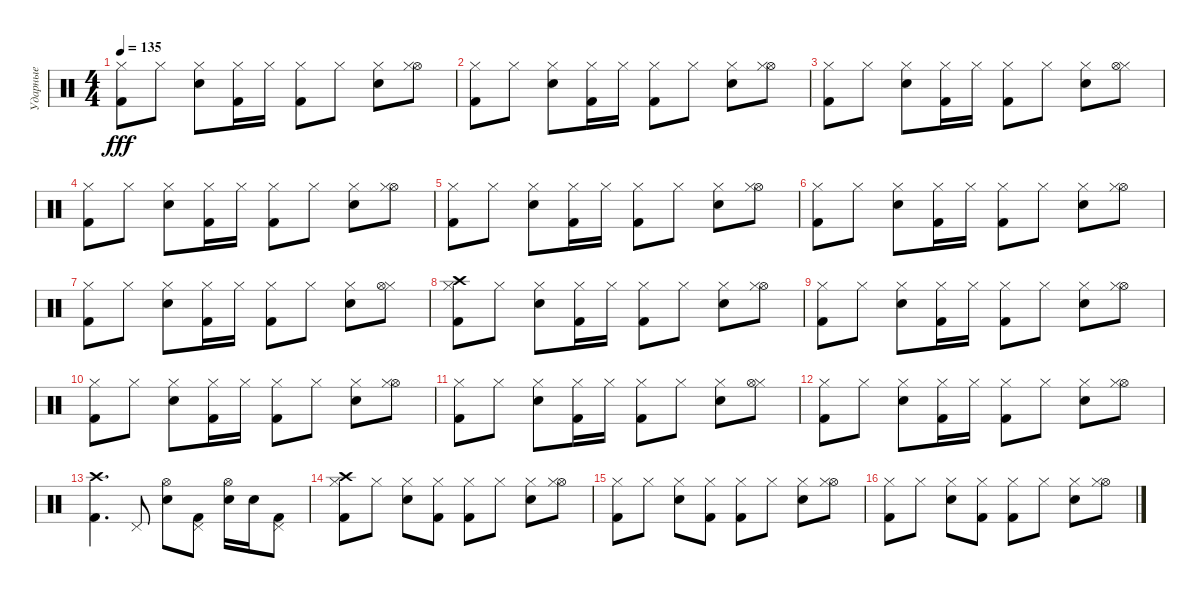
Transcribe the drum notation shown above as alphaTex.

\track ("Ударные" "Ударные") {instrument percussion}
\staff {score}
\articulation defaults
\ts (4 4)
\tempo 135
\clef neutral
\ks c
("Hi-Hat (closed)" "Kick (hit) 2").8{dy fff} "Hi-Hat (closed)".8 ("Hi-Hat (closed)" "Snare (hit) 2").8 ("Kick (hit) 2" "Hi-Hat (closed)").16 "Hi-Hat (closed)".16 ("Hi-Hat (closed)" "Kick (hit) 2").8 "Hi-Hat (closed)".8 ("Hi-Hat (closed)" "Snare (hit) 2").8 ("Hi-Hat (open)" "Hi-Hat (closed)").8 |
("Hi-Hat (closed)" "Kick (hit) 2").8 "Hi-Hat (closed)".8 ("Snare (hit) 2" "Hi-Hat (closed)").8 ("Hi-Hat (closed)" "Kick (hit) 2").16 "Hi-Hat (closed)".16 ("Hi-Hat (closed)" "Kick (hit) 2").8 "Hi-Hat (closed)".8 ("Hi-Hat (closed)" "Snare (hit) 2").8 ("Hi-Hat (open)" "Hi-Hat (closed)").8 |
("Hi-Hat (closed)" "Kick (hit) 2").8 "Hi-Hat (closed)".8 ("Hi-Hat (closed)" "Snare (hit) 2").8 ("Kick (hit) 2" "Hi-Hat (closed)").16 "Hi-Hat (closed)".16 ("Hi-Hat (closed)" "Kick (hit) 2").8 "Hi-Hat (closed)".8 ("Snare (hit) 2" "Hi-Hat (closed)").8 ("Hi-Hat (closed)" "Hi-Hat (open)").8 |
("Hi-Hat (closed)" "Kick (hit) 2").8 "Hi-Hat (closed)".8 ("Hi-Hat (closed)" "Snare (hit) 2").8 ("Hi-Hat (closed)" "Kick (hit) 2").16 "Hi-Hat (closed)".16 ("Hi-Hat (closed)" "Kick (hit) 2").8 "Hi-Hat (closed)".8 ("Snare (hit) 2" "Hi-Hat (closed)").8 ("Hi-Hat (open)" "Hi-Hat (closed)").8 |
("Hi-Hat (closed)" "Kick (hit) 2").8 "Hi-Hat (closed)".8 ("Hi-Hat (closed)" "Snare (hit) 2").8 ("Kick (hit) 2" "Hi-Hat (closed)").16 "Hi-Hat (closed)".16 ("Hi-Hat (closed)" "Kick (hit) 2").8 "Hi-Hat (closed)".8 ("Hi-Hat (closed)" "Snare (hit) 2").8 ("Hi-Hat (open)" "Hi-Hat (closed)").8 |
("Hi-Hat (closed)" "Kick (hit) 2").8 "Hi-Hat (closed)".8 ("Snare (hit) 2" "Hi-Hat (closed)").8 ("Hi-Hat (closed)" "Kick (hit) 2").16 "Hi-Hat (closed)".16 ("Hi-Hat (closed)" "Kick (hit) 2").8 "Hi-Hat (closed)".8 ("Hi-Hat (closed)" "Snare (hit) 2").8 ("Hi-Hat (open)" "Hi-Hat (closed)").8 |
("Hi-Hat (closed)" "Kick (hit) 2").8 "Hi-Hat (closed)".8 ("Hi-Hat (closed)" "Snare (hit) 2").8 ("Kick (hit) 2" "Hi-Hat (closed)").16 "Hi-Hat (closed)".16 ("Hi-Hat (closed)" "Kick (hit) 2").8 "Hi-Hat (closed)".8 ("Snare (hit) 2" "Hi-Hat (closed)").8 ("Hi-Hat (closed)" "Hi-Hat (open)").8 |
("Crash high (hit)" "Hi-Hat (closed)" "Kick (hit) 2").8 "Hi-Hat (closed)".8 ("Hi-Hat (closed)" "Snare (hit) 2").8 ("Hi-Hat (closed)" "Kick (hit) 2").16 "Hi-Hat (closed)".16 ("Hi-Hat (closed)" "Kick (hit) 2").8 "Hi-Hat (closed)".8 ("Snare (hit) 2" "Hi-Hat (closed)").8 ("Hi-Hat (open)" "Hi-Hat (closed)").8 |
("Hi-Hat (closed)" "Kick (hit) 2").8 "Hi-Hat (closed)".8 ("Hi-Hat (closed)" "Snare (hit) 2").8 ("Kick (hit) 2" "Hi-Hat (closed)").16 "Hi-Hat (closed)".16 ("Hi-Hat (closed)" "Kick (hit) 2").8 "Hi-Hat (closed)".8 ("Hi-Hat (closed)" "Snare (hit) 2").8 ("Hi-Hat (open)" "Hi-Hat (closed)").8 |
("Hi-Hat (closed)" "Kick (hit) 2").8 "Hi-Hat (closed)".8 ("Snare (hit) 2" "Hi-Hat (closed)").8 ("Hi-Hat (closed)" "Kick (hit) 2").16 "Hi-Hat (closed)".16 ("Hi-Hat (closed)" "Kick (hit) 2").8 "Hi-Hat (closed)".8 ("Hi-Hat (closed)" "Snare (hit) 2").8 ("Hi-Hat (open)" "Hi-Hat (closed)").8 |
("Hi-Hat (closed)" "Kick (hit) 2").8 "Hi-Hat (closed)".8 ("Hi-Hat (closed)" "Snare (hit) 2").8 ("Kick (hit) 2" "Hi-Hat (closed)").16 "Hi-Hat (closed)".16 ("Hi-Hat (closed)" "Kick (hit) 2").8 "Hi-Hat (closed)".8 ("Snare (hit) 2" "Hi-Hat (closed)").8 ("Hi-Hat (closed)" "Hi-Hat (open)").8 |
("Hi-Hat (closed)" "Kick (hit) 2").8 "Hi-Hat (closed)".8 ("Hi-Hat (closed)" "Snare (hit) 2").8 ("Hi-Hat (closed)" "Kick (hit) 2").16 "Hi-Hat (closed)".16 ("Hi-Hat (closed)" "Kick (hit) 2").8 "Hi-Hat (closed)".8 ("Snare (hit) 2" "Hi-Hat (closed)").8 ("Hi-Hat (open)" "Hi-Hat (closed)").8 |
("Crash high (hit)" "Kick (hit) 2").4{d} "Pedal Hi-Hat (hit)".8 ("Snare (hit) 2" "Hi-Hat (open)").8 ("Kick (hit) 2" "Pedal Hi-Hat (hit)").8 ("Hi-Hat (open)" "Snare (hit) 2").16 "Snare (hit) 2".16 ("Kick (hit) 2" "Pedal Hi-Hat (hit)").8 |
("Crash high (hit)" "Hi-Hat (closed)" "Kick (hit) 2").8 "Hi-Hat (closed)".8 ("Hi-Hat (closed)" "Snare (hit) 2").8 ("Hi-Hat (closed)" "Kick (hit) 2").8 ("Hi-Hat (closed)" "Kick (hit) 2").8 "Hi-Hat (closed)".8 ("Snare (hit) 2" "Hi-Hat (closed)").8 ("Hi-Hat (open)" "Hi-Hat (closed)").8 |
("Hi-Hat (closed)" "Kick (hit) 2").8 "Hi-Hat (closed)".8 ("Hi-Hat (closed)" "Snare (hit) 2").8 ("Kick (hit) 2" "Hi-Hat (closed)").8 ("Hi-Hat (closed)" "Kick (hit) 2").8 "Hi-Hat (closed)".8 ("Hi-Hat (closed)" "Snare (hit) 2").8 ("Hi-Hat (open)" "Hi-Hat (closed)").8 |
("Hi-Hat (closed)" "Kick (hit) 2").8 "Hi-Hat (closed)".8 ("Snare (hit) 2" "Hi-Hat (closed)").8 ("Hi-Hat (closed)" "Kick (hit) 2").8 ("Hi-Hat (closed)" "Kick (hit) 2").8 "Hi-Hat (closed)".8 ("Hi-Hat (closed)" "Snare (hit) 2").8 ("Hi-Hat (open)" "Hi-Hat (closed)").8
